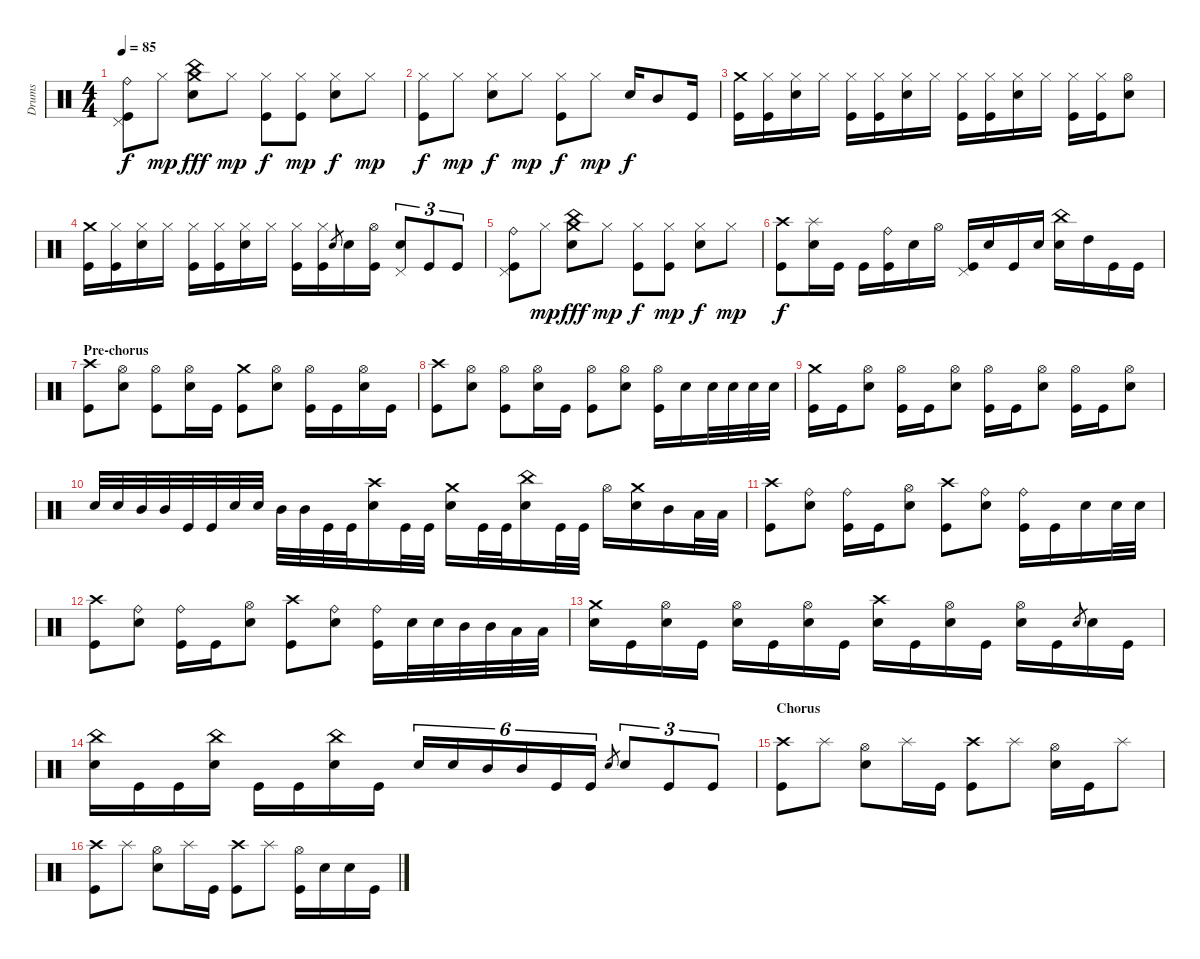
\track ("Drums" "Drums") {instrument percussion}
\staff {score}
\articulation defaults
\ts (4 4)
\tempo 85
\clef neutral
\ks c
("Ride (bell)" "Pedal Hi-Hat (hit)" "Kick (hit)").8{dy f} "Hi-Hat (closed)".8{dy mp} ("China (hit)" "Crash medium (hit)" "Electric Snare (hit)").8{dy fff} "Hi-Hat (closed)".8{dy mp} ("Hi-Hat (closed)" "Kick (hit)").8{dy f} ("Hi-Hat (closed)" "Kick (hit)").8{dy mp} ("Hi-Hat (closed)" "Electric Snare (hit)").8{dy f} "Hi-Hat (closed)".8{dy mp} |
("Hi-Hat (closed)" "Kick (hit)").8{dy f} "Hi-Hat (closed)".8{dy mp} ("Hi-Hat (closed)" "Electric Snare (hit)").8{dy f} "Hi-Hat (closed)".8{dy mp} ("Hi-Hat (closed)" "Kick (hit)").8{dy f} "Hi-Hat (closed)".8{dy mp} "Electric Snare (hit)".16{dy f} "Mid Tom (hit)".8 "Kick (hit)".16 |
("Crash medium (hit)" "Kick (hit)").16 ("Hi-Hat (closed)" "Kick (hit)").16 ("Hi-Hat (closed)" "Electric Snare (hit)").16 "Hi-Hat (closed)".16 ("Hi-Hat (closed)" "Kick (hit)").16 ("Hi-Hat (closed)" "Kick (hit)").16 ("Hi-Hat (closed)" "Electric Snare (hit)").16 "Hi-Hat (closed)".16 ("Hi-Hat (closed)" "Kick (hit)").16 ("Hi-Hat (closed)" "Kick (hit)").16 ("Hi-Hat (closed)" "Electric Snare (hit)").16 "Hi-Hat (closed)".16 ("Hi-Hat (closed)" "Kick (hit)").16 ("Hi-Hat (closed)" "Kick (hit)").16 ("Hi-Hat (open)" "Electric Snare (hit)").8 |
("Crash medium (hit)" "Kick (hit)").16 ("Hi-Hat (closed)" "Kick (hit)").16 ("Hi-Hat (closed)" "Electric Snare (hit)").16 "Hi-Hat (closed)".16 ("Hi-Hat (closed)" "Kick (hit)").16 ("Hi-Hat (closed)" "Kick (hit)").16 ("Hi-Hat (closed)" "Electric Snare (hit)").16 "Hi-Hat (closed)".16 ("Hi-Hat (closed)" "Kick (hit)").16 ("Hi-Hat (closed)" "Kick (hit)").16 "Electric Snare (hit)".8{gr} "Electric Snare (hit)".16 ("Hi-Hat (open)" "Kick (hit)").16 ("Electric Snare (hit)" "Pedal Hi-Hat (hit)").8{tu (3 2)} "Kick (hit)".8{tu (3 2)} "Kick (hit)".8{tu (3 2)} |
("Ride (bell)" "Pedal Hi-Hat (hit)" "Kick (hit)").8 "Hi-Hat (closed)".8{dy mp} ("China (hit)" "Crash medium (hit)" "Electric Snare (hit)").8{dy fff} "Hi-Hat (closed)".8{dy mp} ("Hi-Hat (closed)" "Kick (hit)").8{dy f} ("Hi-Hat (closed)" "Kick (hit)").8{dy mp} ("Hi-Hat (closed)" "Electric Snare (hit)").8{dy f} "Hi-Hat (closed)".8{dy mp} |
("Crash high (hit)" "Kick (hit)").8{dy f} ("Splash (hit)" "Electric Snare (hit)").16 "Kick (hit)".16 "Kick (hit)".16 ("Ride (bell)" "Kick (hit)").16 "Electric Snare (hit)".16 "Hi-Hat (open)".16 ("Kick (hit)" "Pedal Hi-Hat (hit)").16 "Electric Snare (hit)".16 "Kick (hit)".16 "Electric Snare (hit)".16 ("China (hit)" "Electric Snare (hit)").16 "High Tom (hit)".16 "Kick (hit)".16 "Kick (hit)".16 |
\section ("" "Pre-chorus")
("Crash high (hit)" "Kick (hit)").8 ("Hi-Hat (open)" "Electric Snare (hit)").8 ("Hi-Hat (open)" "Kick (hit)").8 ("Hi-Hat (open)" "Electric Snare (hit)").16 "Kick (hit)".16 ("Crash medium (hit)" "Kick (hit)").8 ("Hi-Hat (open)" "Electric Snare (hit)").8 ("Hi-Hat (open)" "Kick (hit)").16 "Kick (hit)".16 ("Hi-Hat (open)" "Electric Snare (hit)").16 "Kick (hit)".16 |
("Crash high (hit)" "Kick (hit)").8 ("Hi-Hat (open)" "Electric Snare (hit)").8 ("Hi-Hat (open)" "Kick (hit)").8 ("Hi-Hat (open)" "Electric Snare (hit)").16 "Kick (hit)".16 ("Hi-Hat (open)" "Kick (hit)").8 ("Hi-Hat (open)" "Electric Snare (hit)").8 ("Hi-Hat (open)" "Kick (hit)").16 "Electric Snare (hit)".16 "Electric Snare (hit)".32 "Electric Snare (hit)".32 "Electric Snare (hit)".32 "Electric Snare (hit)".32 |
("Crash medium (hit)" "Kick (hit)").16 "Kick (hit)".16 ("Hi-Hat (open)" "Electric Snare (hit)").8 ("Hi-Hat (open)" "Kick (hit)").16 "Kick (hit)".16 ("Hi-Hat (open)" "Electric Snare (hit)").8 ("Hi-Hat (open)" "Kick (hit)").16 "Kick (hit)".16 ("Hi-Hat (open)" "Electric Snare (hit)").8 ("Hi-Hat (open)" "Kick (hit)").16 "Kick (hit)".16 ("Hi-Hat (open)" "Electric Snare (hit)").8 |
"Electric Snare (hit)".32 "Electric Snare (hit)".32 "Mid Tom (hit)".32 "Mid Tom (hit)".32 "Kick (hit)".32 "Kick (hit)".32 "Electric Snare (hit)".32 "Electric Snare (hit)".32 "Mid Tom (hit)".32 "Mid Tom (hit)".32 "Kick (hit)".32 "Kick (hit)".32 ("Crash high (hit)" "Electric Snare (hit)").16 "Kick (hit)".32 "Kick (hit)".32 ("Crash medium (hit)" "Electric Snare (hit)").16 "Kick (hit)".32 "Kick (hit)".32 ("China (hit)" "Electric Snare (hit)").16 "Kick (hit)".32 "Kick (hit)".32 "Hi-Hat (open)".16 ("Crash medium (hit)" "Electric Snare (hit)").16 "Mid Tom (hit)".16 "Low Tom (hit)".32 "Low Tom (hit)".32 |
("Crash high (hit)" "Kick (hit)").8 ("Ride (bell)" "Electric Snare (hit)").8 ("Ride (bell)" "Kick (hit)").16 "Kick (hit)".16 ("Hi-Hat (open)" "Electric Snare (hit)").8 ("Crash high (hit)" "Kick (hit)").8 ("Ride (bell)" "Electric Snare (hit)").8 ("Ride (bell)" "Kick (hit)").16 "Kick (hit)".16 "Electric Snare (hit)".16 "Electric Snare (hit)".32 "Electric Snare (hit)".32 |
("Crash high (hit)" "Kick (hit)").8 ("Ride (bell)" "Electric Snare (hit)").8 ("Ride (bell)" "Kick (hit)").16 "Kick (hit)".16 ("Hi-Hat (open)" "Electric Snare (hit)").8 ("Crash high (hit)" "Kick (hit)").8 ("Ride (bell)" "Electric Snare (hit)").8 ("Ride (bell)" "Kick (hit)").16 "Electric Snare (hit)".32 "Electric Snare (hit)".32 "Mid Tom (hit)".32 "Mid Tom (hit)".32 "Low Tom (hit)".32 "Low Tom (hit)".32 |
("Crash medium (hit)" "Electric Snare (hit)").16 "Kick (hit)".16 ("Hi-Hat (open)" "Electric Snare (hit)").16 "Kick (hit)".16 ("Hi-Hat (open)" "Electric Snare (hit)").16 "Kick (hit)".16 ("Hi-Hat (open)" "Electric Snare (hit)").16 "Kick (hit)".16 ("Crash high (hit)" "Electric Snare (hit)").16 "Kick (hit)".16 ("Hi-Hat (open)" "Electric Snare (hit)").16 "Kick (hit)".16 ("Hi-Hat (open)" "Electric Snare (hit)").16 "Kick (hit)".16 "Electric Snare (hit)".8{gr} "Electric Snare (hit)".16 "Kick (hit)".16 |
("China (hit)" "Electric Snare (hit)").16 "Kick (hit)".16 "Kick (hit)".16 ("China (hit)" "Electric Snare (hit)").16 "Kick (hit)".16 "Kick (hit)".16 ("China (hit)" "Electric Snare (hit)").16 "Kick (hit)".16 "Electric Snare (hit)".16{tu (6 4)} "Electric Snare (hit)".16{tu (6 4)} "Mid Tom (hit)".16{tu (6 4)} "Mid Tom (hit)".16{tu (6 4)} "Kick (hit)".16{tu (6 4)} "Kick (hit)".16{tu (6 4)} "Electric Snare (hit)".8{gr} "Electric Snare (hit)".8{tu (3 2)} "Kick (hit)".8{tu (3 2)} "Kick (hit)".8{tu (3 2)} |
\section ("" "Chorus")
("Crash high (hit)" "Kick (hit)").8 "Splash (hit)".8 ("Hi-Hat (open)" "Electric Snare (hit)").8 "Splash (hit)".16 "Kick (hit)".16 ("Crash high (hit)" "Kick (hit)").8 "Splash (hit)".8 ("Hi-Hat (open)" "Electric Snare (hit)").16 "Kick (hit)".16 "Splash (hit)".8 |
("Crash high (hit)" "Kick (hit)").8 "Splash (hit)".8 ("Hi-Hat (open)" "Electric Snare (hit)").8 "Splash (hit)".16 "Kick (hit)".16 ("Crash high (hit)" "Kick (hit)").8 "Splash (hit)".8 ("Hi-Hat (open)" "Kick (hit)").16 "Electric Snare (hit)".16 "Electric Snare (hit)".16 "Kick (hit)".16
